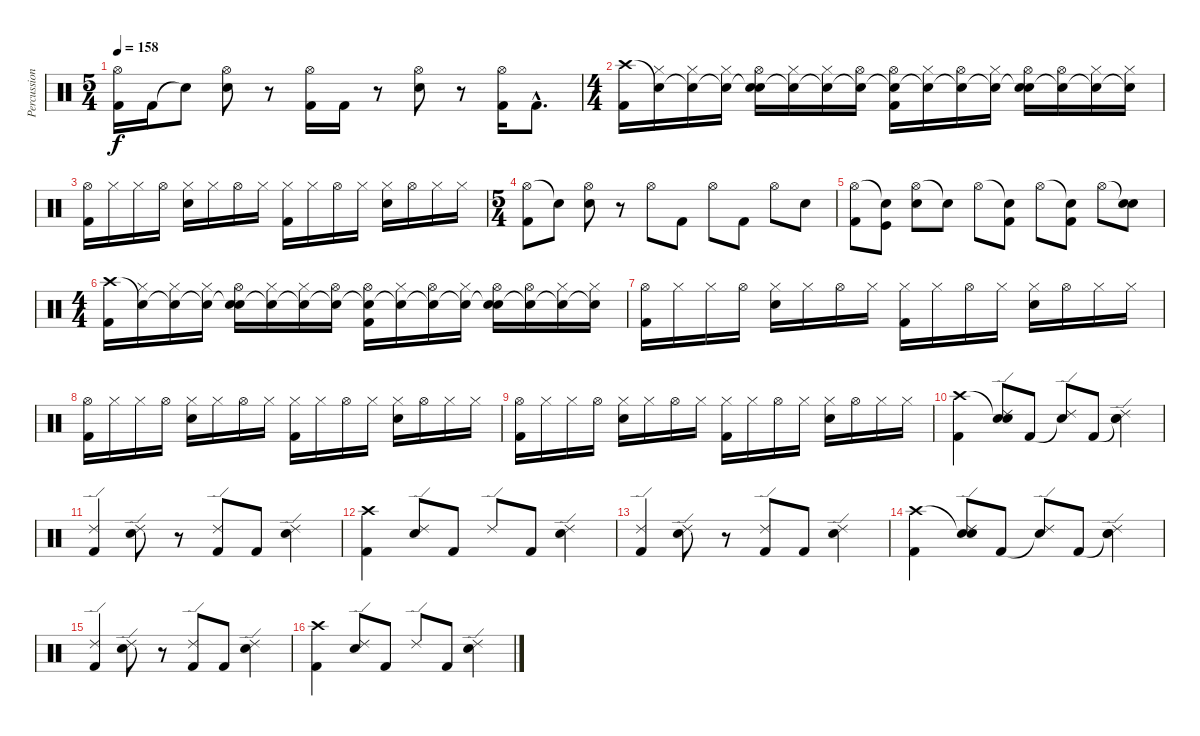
\track ("Percussion" "Percussion") {instrument percussion}
\staff {score}
\articulation defaults
\ts (5 4)
\tempo 158
\clef neutral
\ks c
("Hi-Hat (open)" "Kick (hit) 2").16{dy f} "Kick (hit) 2".16 "Snare (hit)"{t}.8 ("Hi-Hat (open)" "Snare (hit) 2").8 r.8 ("Hi-Hat (open)" "Kick (hit) 2").16 "Kick (hit) 2".16 r.8 ("Hi-Hat (open)" "Snare (hit) 2").8 r.8 ("Hi-Hat (open)" "Kick (hit) 2").16 "Kick (hit) 2"{hac}.8{d} |
\ts (4 4)
("Crash high (hit)" "Kick (hit) 2").16 ("Snare (hit)"{t} "Hi-Hat (closed)").16 ("Snare (hit)"{t} "Hi-Hat (closed)").16 ("Snare (hit)"{t} "Hi-Hat (closed)").16 ("Snare (hit)"{t} "Hi-Hat (open)" "Snare (hit) 2").16 ("Snare (hit)"{t} "Hi-Hat (closed)").16 ("Snare (hit)"{t} "Hi-Hat (closed)").16 ("Snare (hit)"{t} "Hi-Hat (open)").16 ("Snare (hit)"{t} "Hi-Hat (open)" "Kick (hit) 2").16 ("Snare (hit)"{t} "Hi-Hat (closed)").16 ("Snare (hit)"{t} "Hi-Hat (open)").16 ("Snare (hit)"{t} "Hi-Hat (closed)").16 ("Snare (hit)"{t} "Hi-Hat (open)" "Snare (hit) 2").16 ("Snare (hit)"{t} "Hi-Hat (open)").16 ("Snare (hit)"{t} "Hi-Hat (closed)").16 ("Snare (hit)"{t} "Hi-Hat (closed)").16 |
("Hi-Hat (open)" "Kick (hit) 2").16 "Hi-Hat (closed)".16 "Hi-Hat (closed)".16 "Hi-Hat (open)".16 ("Hi-Hat (closed)" "Snare (hit) 2").16 "Hi-Hat (closed)".16 "Hi-Hat (open)".16 "Hi-Hat (closed)".16 ("Hi-Hat (closed)" "Kick (hit) 2").16 "Hi-Hat (closed)".16 "Hi-Hat (open)".16 "Hi-Hat (closed)".16 ("Hi-Hat (closed)" "Snare (hit) 2").16 "Hi-Hat (open)".16 "Hi-Hat (closed)".16 "Hi-Hat (closed)".16 |
\ts (5 4)
("Hi-Hat (open)" "Kick (hit) 2").8 "Snare (hit)"{t}.8 ("Hi-Hat (open)" "Snare (hit) 2").8 r.8 "Hi-Hat (open)".8 "Kick (hit) 2".8 "Hi-Hat (open)".8 "Kick (hit) 2".8 "Hi-Hat (open)".8 "Snare (hit) 2".8 |
("Hi-Hat (open)" "Kick (hit) 2").8 ("Snare (hit)"{t} "Kick (hit)").8 ("Hi-Hat (open)" "Snare (hit) 2").8 "Snare (hit)"{t}.8 "Hi-Hat (open)".8 ("Snare (hit)"{t} "Kick (hit) 2").8 "Hi-Hat (open)".8 ("Snare (hit)"{t} "Kick (hit) 2").8 "Hi-Hat (open)".8 ("Snare (hit)"{t} "Snare (hit) 2").8 |
\ts (4 4)
("Crash high (hit)" "Kick (hit) 2").16 ("Snare (hit)"{t} "Hi-Hat (closed)").16 ("Snare (hit)"{t} "Hi-Hat (closed)").16 ("Snare (hit)"{t} "Hi-Hat (closed)").16 ("Snare (hit)"{t} "Hi-Hat (open)" "Snare (hit) 2").16 ("Snare (hit)"{t} "Hi-Hat (closed)").16 ("Snare (hit)"{t} "Hi-Hat (closed)").16 ("Snare (hit)"{t} "Hi-Hat (open)").16 ("Snare (hit)"{t} "Hi-Hat (open)" "Kick (hit) 2").16 ("Snare (hit)"{t} "Hi-Hat (closed)").16 ("Snare (hit)"{t} "Hi-Hat (open)").16 ("Snare (hit)"{t} "Hi-Hat (closed)").16 ("Snare (hit)"{t} "Hi-Hat (open)" "Snare (hit) 2").16 ("Snare (hit)"{t} "Hi-Hat (open)").16 ("Snare (hit)"{t} "Hi-Hat (closed)").16 ("Snare (hit)"{t} "Hi-Hat (closed)").16 |
("Hi-Hat (open)" "Kick (hit) 2").16 "Hi-Hat (closed)".16 "Hi-Hat (closed)".16 "Hi-Hat (open)".16 ("Hi-Hat (closed)" "Snare (hit) 2").16 "Hi-Hat (closed)".16 "Hi-Hat (open)".16 "Hi-Hat (closed)".16 ("Hi-Hat (closed)" "Kick (hit) 2").16 "Hi-Hat (closed)".16 "Hi-Hat (open)".16 "Hi-Hat (closed)".16 ("Hi-Hat (closed)" "Snare (hit) 2").16 "Hi-Hat (open)".16 "Hi-Hat (closed)".16 "Hi-Hat (closed)".16 |
("Hi-Hat (open)" "Kick (hit) 2").16 "Hi-Hat (closed)".16 "Hi-Hat (closed)".16 "Hi-Hat (open)".16 ("Hi-Hat (closed)" "Snare (hit) 2").16 "Hi-Hat (closed)".16 "Hi-Hat (open)".16 "Hi-Hat (closed)".16 ("Hi-Hat (closed)" "Kick (hit) 2").16 "Hi-Hat (closed)".16 "Hi-Hat (open)".16 "Hi-Hat (closed)".16 ("Hi-Hat (closed)" "Snare (hit) 2").16 "Hi-Hat (open)".16 "Hi-Hat (closed)".16 "Hi-Hat (closed)".16 |
("Hi-Hat (open)" "Kick (hit) 2").16 "Hi-Hat (closed)".16 "Hi-Hat (closed)".16 "Hi-Hat (open)".16 ("Hi-Hat (closed)" "Snare (hit) 2").16 "Hi-Hat (closed)".16 "Hi-Hat (open)".16 "Hi-Hat (closed)".16 ("Hi-Hat (closed)" "Kick (hit) 2").16 "Hi-Hat (closed)".16 "Hi-Hat (open)".16 "Hi-Hat (closed)".16 ("Hi-Hat (closed)" "Snare (hit) 2").16 "Hi-Hat (open)".16 "Hi-Hat (closed)".16 "Hi-Hat (closed)".16 |
("Crash high (hit)" "Kick (hit) 2").4 ("Snare (hit)"{t} "Ride (edge) 2" "Snare (hit) 2").8 "Kick (hit) 2".8 ("Snare (hit)"{t} "Ride (edge) 2").8 "Kick (hit) 2".8 ("Snare (hit)"{t} "Ride (edge) 2" "Snare (hit) 2").4 |
("Ride (edge) 2" "Kick (hit) 2").4 ("Ride (edge) 2" "Snare (hit) 2").8 r.8 ("Ride (edge) 2" "Kick (hit) 2").8 "Kick (hit) 2".8 ("Ride (edge) 2" "Snare (hit) 2").4 |
("Crash high (hit)" "Kick (hit) 2").4 ("Ride (edge) 2" "Snare (hit) 2").8 "Kick (hit) 2".8 "Ride (edge) 2".8 "Kick (hit) 2".8 ("Ride (edge) 2" "Snare (hit) 2").4 |
("Ride (edge) 2" "Kick (hit) 2").4 ("Ride (edge) 2" "Snare (hit) 2").8 r.8 ("Ride (edge) 2" "Kick (hit) 2").8 "Kick (hit) 2".8 ("Ride (edge) 2" "Snare (hit) 2").4 |
("Crash high (hit)" "Kick (hit) 2").4 ("Snare (hit)"{t} "Ride (edge) 2" "Snare (hit) 2").8 "Kick (hit) 2".8 ("Snare (hit)"{t} "Ride (edge) 2").8 "Kick (hit) 2".8 ("Snare (hit)"{t} "Ride (edge) 2" "Snare (hit) 2").4 |
("Ride (edge) 2" "Kick (hit) 2").4 ("Ride (edge) 2" "Snare (hit) 2").8 r.8 ("Ride (edge) 2" "Kick (hit) 2").8 "Kick (hit) 2".8 ("Ride (edge) 2" "Snare (hit) 2").4 |
("Crash high (hit)" "Kick (hit) 2").4 ("Ride (edge) 2" "Snare (hit) 2").8 "Kick (hit) 2".8 "Ride (edge) 2".8 "Kick (hit) 2".8 ("Ride (edge) 2" "Snare (hit) 2").4
